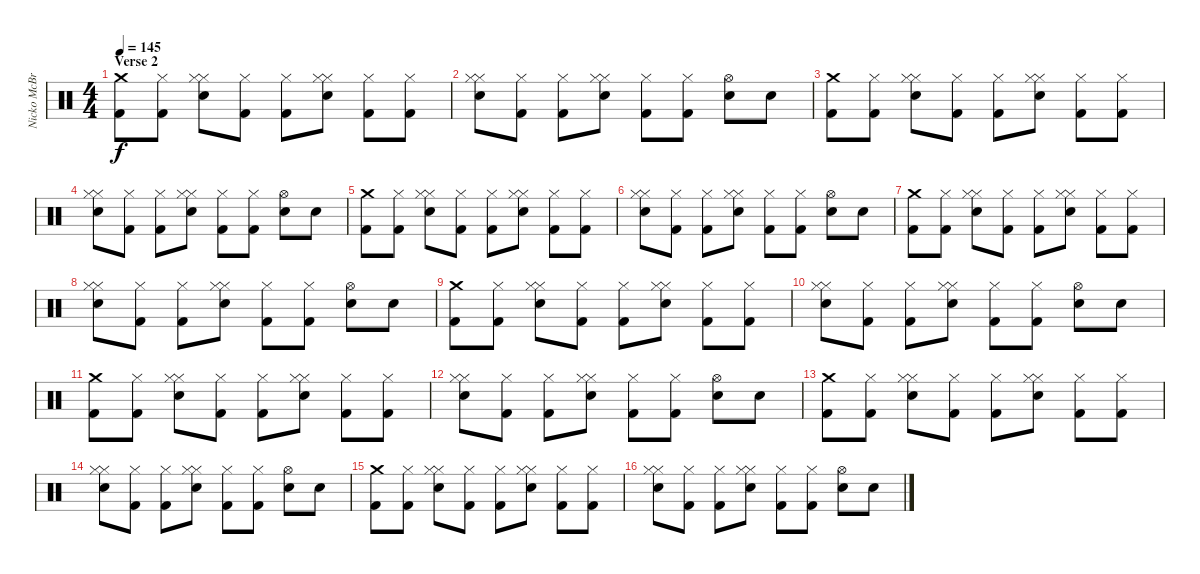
\track ("Nicko McBrain" "Nicko McBr") {instrument percussion}
\staff {score}
\articulation defaults
\ts (4 4)
\section ("" "Verse 2")
\tempo 145
\clef neutral
\ks c
("Crash medium (hit)" "Kick (hit) 2").8{dy f} ("Kick (hit) 2" "Hi-Hat (closed)").8 ("Snare (hit) 2" "Hi-Hat (closed)" "Hi-Hat (closed)").8 ("Kick (hit) 2" "Hi-Hat (closed)").8 ("Kick (hit) 2" "Hi-Hat (closed)").8 ("Snare (hit) 2" "Hi-Hat (closed)" "Hi-Hat (closed)").8 ("Kick (hit) 2" "Hi-Hat (closed)").8 ("Kick (hit) 2" "Hi-Hat (closed)").8 |
("Snare (hit) 2" "Hi-Hat (closed)" "Hi-Hat (closed)").8 ("Kick (hit) 2" "Hi-Hat (closed)").8 ("Kick (hit) 2" "Hi-Hat (closed)").8 ("Snare (hit) 2" "Hi-Hat (closed)" "Hi-Hat (closed)").8 ("Kick (hit) 2" "Hi-Hat (closed)").8 ("Kick (hit) 2" "Hi-Hat (closed)").8 ("Snare (hit) 2" "Hi-Hat (open)").8 "Snare (hit) 2".8 |
("Crash medium (hit)" "Kick (hit) 2").8 ("Kick (hit) 2" "Hi-Hat (closed)").8 ("Snare (hit) 2" "Hi-Hat (closed)" "Hi-Hat (closed)").8 ("Kick (hit) 2" "Hi-Hat (closed)").8 ("Kick (hit) 2" "Hi-Hat (closed)").8 ("Snare (hit) 2" "Hi-Hat (closed)" "Hi-Hat (closed)").8 ("Kick (hit) 2" "Hi-Hat (closed)").8 ("Kick (hit) 2" "Hi-Hat (closed)").8 |
("Snare (hit) 2" "Hi-Hat (closed)" "Hi-Hat (closed)").8 ("Kick (hit) 2" "Hi-Hat (closed)").8 ("Kick (hit) 2" "Hi-Hat (closed)").8 ("Snare (hit) 2" "Hi-Hat (closed)" "Hi-Hat (closed)").8 ("Kick (hit) 2" "Hi-Hat (closed)").8 ("Kick (hit) 2" "Hi-Hat (closed)").8 ("Snare (hit) 2" "Hi-Hat (open)").8 "Snare (hit) 2".8 |
("Crash medium (hit)" "Kick (hit) 2").8 ("Kick (hit) 2" "Hi-Hat (closed)").8 ("Snare (hit) 2" "Hi-Hat (closed)" "Hi-Hat (closed)").8 ("Kick (hit) 2" "Hi-Hat (closed)").8 ("Kick (hit) 2" "Hi-Hat (closed)").8 ("Snare (hit) 2" "Hi-Hat (closed)" "Hi-Hat (closed)").8 ("Kick (hit) 2" "Hi-Hat (closed)").8 ("Kick (hit) 2" "Hi-Hat (closed)").8 |
("Snare (hit) 2" "Hi-Hat (closed)" "Hi-Hat (closed)").8 ("Kick (hit) 2" "Hi-Hat (closed)").8 ("Kick (hit) 2" "Hi-Hat (closed)").8 ("Snare (hit) 2" "Hi-Hat (closed)" "Hi-Hat (closed)").8 ("Kick (hit) 2" "Hi-Hat (closed)").8 ("Kick (hit) 2" "Hi-Hat (closed)").8 ("Snare (hit) 2" "Hi-Hat (open)").8 "Snare (hit) 2".8 |
("Crash medium (hit)" "Kick (hit) 2").8 ("Kick (hit) 2" "Hi-Hat (closed)").8 ("Snare (hit) 2" "Hi-Hat (closed)" "Hi-Hat (closed)").8 ("Kick (hit) 2" "Hi-Hat (closed)").8 ("Kick (hit) 2" "Hi-Hat (closed)").8 ("Snare (hit) 2" "Hi-Hat (closed)" "Hi-Hat (closed)").8 ("Kick (hit) 2" "Hi-Hat (closed)").8 ("Kick (hit) 2" "Hi-Hat (closed)").8 |
("Snare (hit) 2" "Hi-Hat (closed)" "Hi-Hat (closed)").8 ("Kick (hit) 2" "Hi-Hat (closed)").8 ("Kick (hit) 2" "Hi-Hat (closed)").8 ("Snare (hit) 2" "Hi-Hat (closed)" "Hi-Hat (closed)").8 ("Kick (hit) 2" "Hi-Hat (closed)").8 ("Kick (hit) 2" "Hi-Hat (closed)").8 ("Snare (hit) 2" "Hi-Hat (open)").8 "Snare (hit) 2".8 |
("Crash medium (hit)" "Kick (hit) 2").8 ("Kick (hit) 2" "Hi-Hat (closed)").8 ("Snare (hit) 2" "Hi-Hat (closed)" "Hi-Hat (closed)").8 ("Kick (hit) 2" "Hi-Hat (closed)").8 ("Kick (hit) 2" "Hi-Hat (closed)").8 ("Snare (hit) 2" "Hi-Hat (closed)" "Hi-Hat (closed)").8 ("Kick (hit) 2" "Hi-Hat (closed)").8 ("Kick (hit) 2" "Hi-Hat (closed)").8 |
("Snare (hit) 2" "Hi-Hat (closed)" "Hi-Hat (closed)").8 ("Kick (hit) 2" "Hi-Hat (closed)").8 ("Kick (hit) 2" "Hi-Hat (closed)").8 ("Snare (hit) 2" "Hi-Hat (closed)" "Hi-Hat (closed)").8 ("Kick (hit) 2" "Hi-Hat (closed)").8 ("Kick (hit) 2" "Hi-Hat (closed)").8 ("Snare (hit) 2" "Hi-Hat (open)").8 "Snare (hit) 2".8 |
("Crash medium (hit)" "Kick (hit) 2").8 ("Kick (hit) 2" "Hi-Hat (closed)").8 ("Snare (hit) 2" "Hi-Hat (closed)" "Hi-Hat (closed)").8 ("Kick (hit) 2" "Hi-Hat (closed)").8 ("Kick (hit) 2" "Hi-Hat (closed)").8 ("Snare (hit) 2" "Hi-Hat (closed)" "Hi-Hat (closed)").8 ("Kick (hit) 2" "Hi-Hat (closed)").8 ("Kick (hit) 2" "Hi-Hat (closed)").8 |
("Snare (hit) 2" "Hi-Hat (closed)" "Hi-Hat (closed)").8 ("Kick (hit) 2" "Hi-Hat (closed)").8 ("Kick (hit) 2" "Hi-Hat (closed)").8 ("Snare (hit) 2" "Hi-Hat (closed)" "Hi-Hat (closed)").8 ("Kick (hit) 2" "Hi-Hat (closed)").8 ("Kick (hit) 2" "Hi-Hat (closed)").8 ("Snare (hit) 2" "Hi-Hat (open)").8 "Snare (hit) 2".8 |
("Crash medium (hit)" "Kick (hit) 2").8 ("Kick (hit) 2" "Hi-Hat (closed)").8 ("Snare (hit) 2" "Hi-Hat (closed)" "Hi-Hat (closed)").8 ("Kick (hit) 2" "Hi-Hat (closed)").8 ("Kick (hit) 2" "Hi-Hat (closed)").8 ("Snare (hit) 2" "Hi-Hat (closed)" "Hi-Hat (closed)").8 ("Kick (hit) 2" "Hi-Hat (closed)").8 ("Kick (hit) 2" "Hi-Hat (closed)").8 |
("Snare (hit) 2" "Hi-Hat (closed)" "Hi-Hat (closed)").8 ("Kick (hit) 2" "Hi-Hat (closed)").8 ("Kick (hit) 2" "Hi-Hat (closed)").8 ("Snare (hit) 2" "Hi-Hat (closed)" "Hi-Hat (closed)").8 ("Kick (hit) 2" "Hi-Hat (closed)").8 ("Kick (hit) 2" "Hi-Hat (closed)").8 ("Snare (hit) 2" "Hi-Hat (open)").8 "Snare (hit) 2".8 |
("Crash medium (hit)" "Kick (hit) 2").8 ("Kick (hit) 2" "Hi-Hat (closed)").8 ("Snare (hit) 2" "Hi-Hat (closed)" "Hi-Hat (closed)").8 ("Kick (hit) 2" "Hi-Hat (closed)").8 ("Kick (hit) 2" "Hi-Hat (closed)").8 ("Snare (hit) 2" "Hi-Hat (closed)" "Hi-Hat (closed)").8 ("Kick (hit) 2" "Hi-Hat (closed)").8 ("Kick (hit) 2" "Hi-Hat (closed)").8 |
("Snare (hit) 2" "Hi-Hat (closed)" "Hi-Hat (closed)").8 ("Kick (hit) 2" "Hi-Hat (closed)").8 ("Kick (hit) 2" "Hi-Hat (closed)").8 ("Snare (hit) 2" "Hi-Hat (closed)" "Hi-Hat (closed)").8 ("Kick (hit) 2" "Hi-Hat (closed)").8 ("Kick (hit) 2" "Hi-Hat (closed)").8 ("Snare (hit) 2" "Hi-Hat (open)").8 "Snare (hit) 2".8
